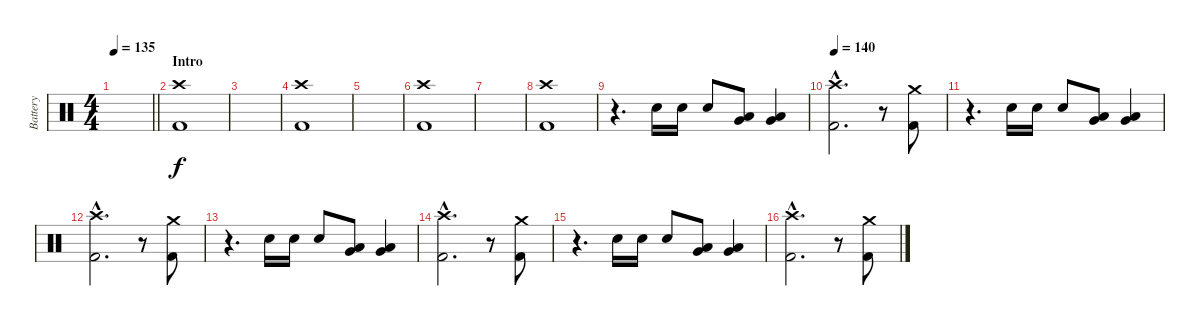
\track ("Battery" "Battery") {instrument percussion}
\staff {score}
\articulation defaults
\ts (4 4)
\tempo 135
\clef neutral
\barLineRight lightlight
\ks c
|
\section ("" "Intro")
("Crash high (hit)" "Kick (hit) 2").1 |
|
("Crash high (hit)" "Kick (hit) 2").1 |
|
("Crash high (hit)" "Kick (hit) 2").1 |
|
("Crash high (hit)" "Kick (hit) 2").1 |
r.4{d} "Electric Snare (hit)".16 "Electric Snare (hit)".16 "Electric Snare (hit)".8 ("Low Tom (hit)" "Very Low Tom (hit)").8 ("Very Low Tom (hit)" "Low Floor Tom (hit)").4 |
\tempo 140
("Crash high (hit)"{hac} "Kick (hit) 2"{hac}).2{d} r.8 ("Crash medium (hit)" "Kick (hit) 2").8 |
r.4{d} "Electric Snare (hit)".16 "Electric Snare (hit)".16 "Electric Snare (hit)".8 ("Low Tom (hit)" "Very Low Tom (hit)").8 ("Very Low Tom (hit)" "Low Floor Tom (hit)").4 |
("Crash high (hit)"{hac} "Kick (hit) 2"{hac}).2{d} r.8 ("Crash medium (hit)" "Kick (hit) 2").8 |
r.4{d} "Electric Snare (hit)".16 "Electric Snare (hit)".16 "Electric Snare (hit)".8 ("Low Tom (hit)" "Very Low Tom (hit)").8 ("Very Low Tom (hit)" "Low Floor Tom (hit)").4 |
("Crash high (hit)"{hac} "Kick (hit) 2"{hac}).2{d} r.8 ("Crash medium (hit)" "Kick (hit) 2").8 |
r.4{d} "Electric Snare (hit)".16 "Electric Snare (hit)".16 "Electric Snare (hit)".8 ("Low Tom (hit)" "Very Low Tom (hit)").8 ("Very Low Tom (hit)" "Low Floor Tom (hit)").4 |
("Crash high (hit)"{hac} "Kick (hit) 2"{hac}).2{d} r.8 ("Crash medium (hit)" "Kick (hit) 2").8
